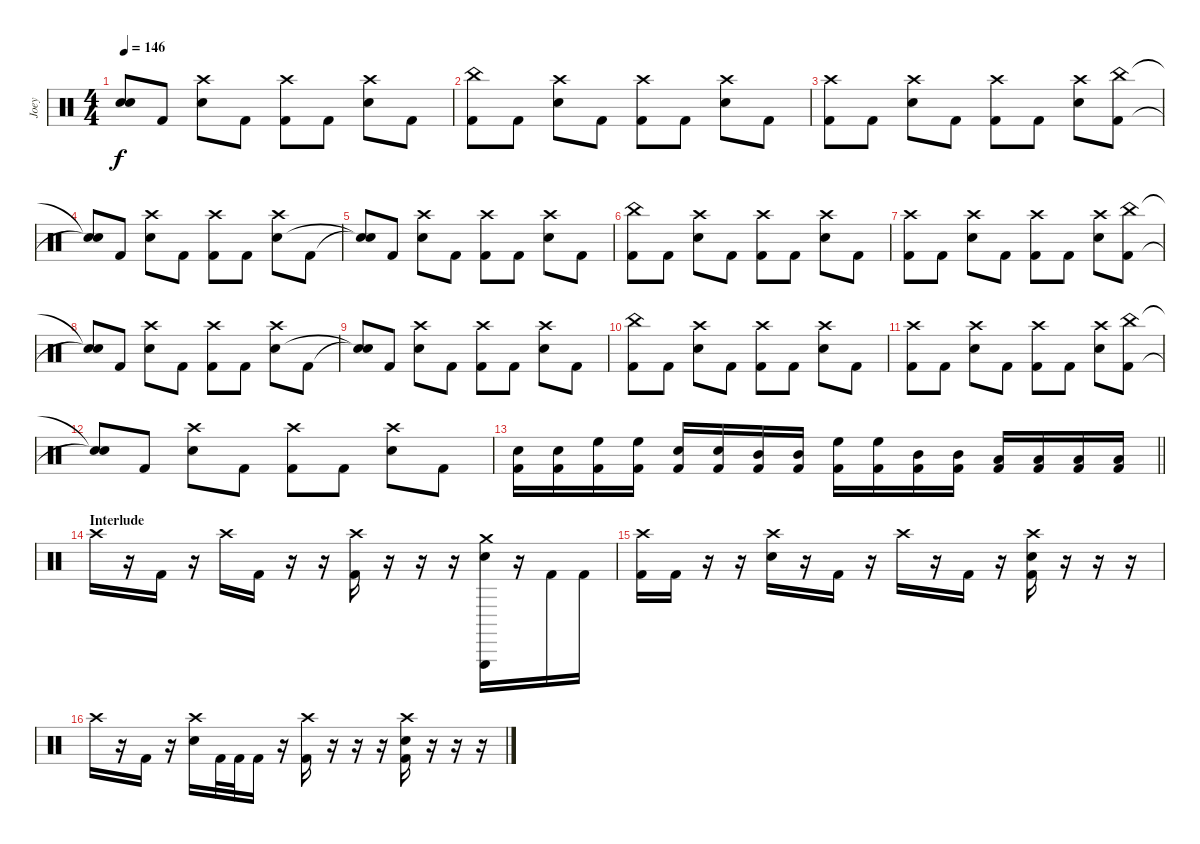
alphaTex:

\track ("Joey" "Joey") {instrument percussion}
\staff {score}
\articulation defaults
\ts (4 4)
\tempo 146
\clef neutral
\ks c
("Snare (hit)"{t} "Snare (hit)"{t}).8{dy f} "Kick (hit) 2".8 ("Crash high (hit)" "Snare (hit) 2").8 "Kick (hit) 2".8 ("Crash high (hit)" "Kick (hit) 2").8 "Kick (hit) 2".8 ("Crash high (hit)" "Snare (hit) 2").8 "Kick (hit) 2".8 |
("China (hit)" "Kick (hit) 2").8 "Kick (hit) 2".8 ("Crash high (hit)" "Snare (hit) 2").8 "Kick (hit) 2".8 ("Crash high (hit)" "Kick (hit) 2").8 "Kick (hit) 2".8 ("Crash high (hit)" "Snare (hit) 2").8 "Kick (hit) 2".8 |
("Crash high (hit)" "Kick (hit) 2").8 "Kick (hit) 2".8 ("Crash high (hit)" "Snare (hit) 2").8 "Kick (hit) 2".8 ("Crash high (hit)" "Kick (hit) 2").8 "Kick (hit) 2".8 ("Crash high (hit)" "Snare (hit) 2").8 ("China (hit)" "Kick (hit) 2").8 |
("Snare (hit)"{t} "Snare (hit)"{t}).8 "Kick (hit) 2".8 ("Crash high (hit)" "Snare (hit) 2").8 "Kick (hit) 2".8 ("Crash high (hit)" "Kick (hit) 2").8 "Kick (hit) 2".8 ("Crash high (hit)" "Snare (hit) 2").8 "Kick (hit) 2".8 |
("Snare (hit)"{t} "Snare (hit)"{t}).8 "Kick (hit) 2".8 ("Crash high (hit)" "Snare (hit) 2").8 "Kick (hit) 2".8 ("Crash high (hit)" "Kick (hit) 2").8 "Kick (hit) 2".8 ("Crash high (hit)" "Snare (hit) 2").8 "Kick (hit) 2".8 |
("China (hit)" "Kick (hit) 2").8 "Kick (hit) 2".8 ("Crash high (hit)" "Snare (hit) 2").8 "Kick (hit) 2".8 ("Crash high (hit)" "Kick (hit) 2").8 "Kick (hit) 2".8 ("Crash high (hit)" "Snare (hit) 2").8 "Kick (hit) 2".8 |
("Crash high (hit)" "Kick (hit) 2").8 "Kick (hit) 2".8 ("Crash high (hit)" "Snare (hit) 2").8 "Kick (hit) 2".8 ("Crash high (hit)" "Kick (hit) 2").8 "Kick (hit) 2".8 ("Crash high (hit)" "Snare (hit) 2").8 ("China (hit)" "Kick (hit) 2").8 |
("Snare (hit)"{t} "Snare (hit)"{t}).8 "Kick (hit) 2".8 ("Crash high (hit)" "Snare (hit) 2").8 "Kick (hit) 2".8 ("Crash high (hit)" "Kick (hit) 2").8 "Kick (hit) 2".8 ("Crash high (hit)" "Snare (hit) 2").8 "Kick (hit) 2".8 |
("Snare (hit)"{t} "Snare (hit)"{t}).8 "Kick (hit) 2".8 ("Crash high (hit)" "Snare (hit) 2").8 "Kick (hit) 2".8 ("Crash high (hit)" "Kick (hit) 2").8 "Kick (hit) 2".8 ("Crash high (hit)" "Snare (hit) 2").8 "Kick (hit) 2".8 |
("China (hit)" "Kick (hit) 2").8 "Kick (hit) 2".8 ("Crash high (hit)" "Snare (hit) 2").8 "Kick (hit) 2".8 ("Crash high (hit)" "Kick (hit) 2").8 "Kick (hit) 2".8 ("Crash high (hit)" "Snare (hit) 2").8 "Kick (hit) 2".8 |
("Crash high (hit)" "Kick (hit) 2").8 "Kick (hit) 2".8 ("Crash high (hit)" "Snare (hit) 2").8 "Kick (hit) 2".8 ("Crash high (hit)" "Kick (hit) 2").8 "Kick (hit) 2".8 ("Crash high (hit)" "Snare (hit) 2").8 ("China (hit)" "Kick (hit) 2").8 |
("Snare (hit)"{t} "Snare (hit)"{t}).8 "Kick (hit) 2".8 ("Crash high (hit)" "Snare (hit) 2").8 "Kick (hit) 2".8 ("Crash high (hit)" "Kick (hit) 2").8 "Kick (hit) 2".8 ("Crash high (hit)" "Snare (hit) 2").8 "Kick (hit) 2".8 |
\barLineRight lightlight
("Kick (hit) 2" "Snare (hit) 2").16 ("Kick (hit) 2" "Snare (hit) 2").16 ("Kick (hit) 2" "High Floor Tom (hit)").16 ("Kick (hit) 2" "High Floor Tom (hit)").16 ("Kick (hit) 2" "Snare (hit) 2").16 ("Kick (hit) 2" "Snare (hit) 2").16 ("Kick (hit) 2" "Mid Tom (hit)").16 ("Kick (hit) 2" "Mid Tom (hit)").16 ("Kick (hit) 2" "High Floor Tom (hit)").16 ("Kick (hit) 2" "High Floor Tom (hit)").16 ("Kick (hit) 2" "Mid Tom (hit)").16 ("Kick (hit) 2" "Mid Tom (hit)").16 ("Kick (hit) 2" "Low Tom (hit)").16 ("Kick (hit) 2" "Low Tom (hit)").16 ("Kick (hit) 2" "Low Floor Tom (hit)").16 ("Kick (hit) 2" "Low Floor Tom (hit)").16 |
\section ("" "Interlude")
"Crash high (hit)".16 r.16 "Kick (hit) 2".16 r.16 "Crash high (hit)".16 "Kick (hit) 2".16 r.16 r.16 ("Crash high (hit)" "Kick (hit) 2").16 r.16 r.16 r.16 ("Triangle (hit)" "Crash medium (hit)" "Snare (hit) 2").16 r.16 "Kick (hit) 2".16 "Kick (hit) 2".16 |
("Crash high (hit)" "Kick (hit) 2").16 "Kick (hit) 2".16 r.16 r.16 ("Crash high (hit)" "Snare (hit) 2").16 r.16 "Kick (hit) 2".16 r.16 "Crash high (hit)".16 r.16 "Kick (hit) 2".16 r.16 ("Crash high (hit)" "Snare (hit) 2" "Kick (hit) 2").16 r.16 r.16 r.16 |
"Crash high (hit)".16 r.16 "Kick (hit) 2".16 r.16 ("Crash high (hit)" "Snare (hit) 2").16 "Kick (hit) 2".32 "Kick (hit) 2".32 "Kick (hit) 2".16 r.16 ("Crash high (hit)" "Kick (hit) 2").16 r.16 r.16 r.16 ("Crash high (hit)" "Snare (hit) 2" "Kick (hit) 2").16 r.16 r.16 r.16
